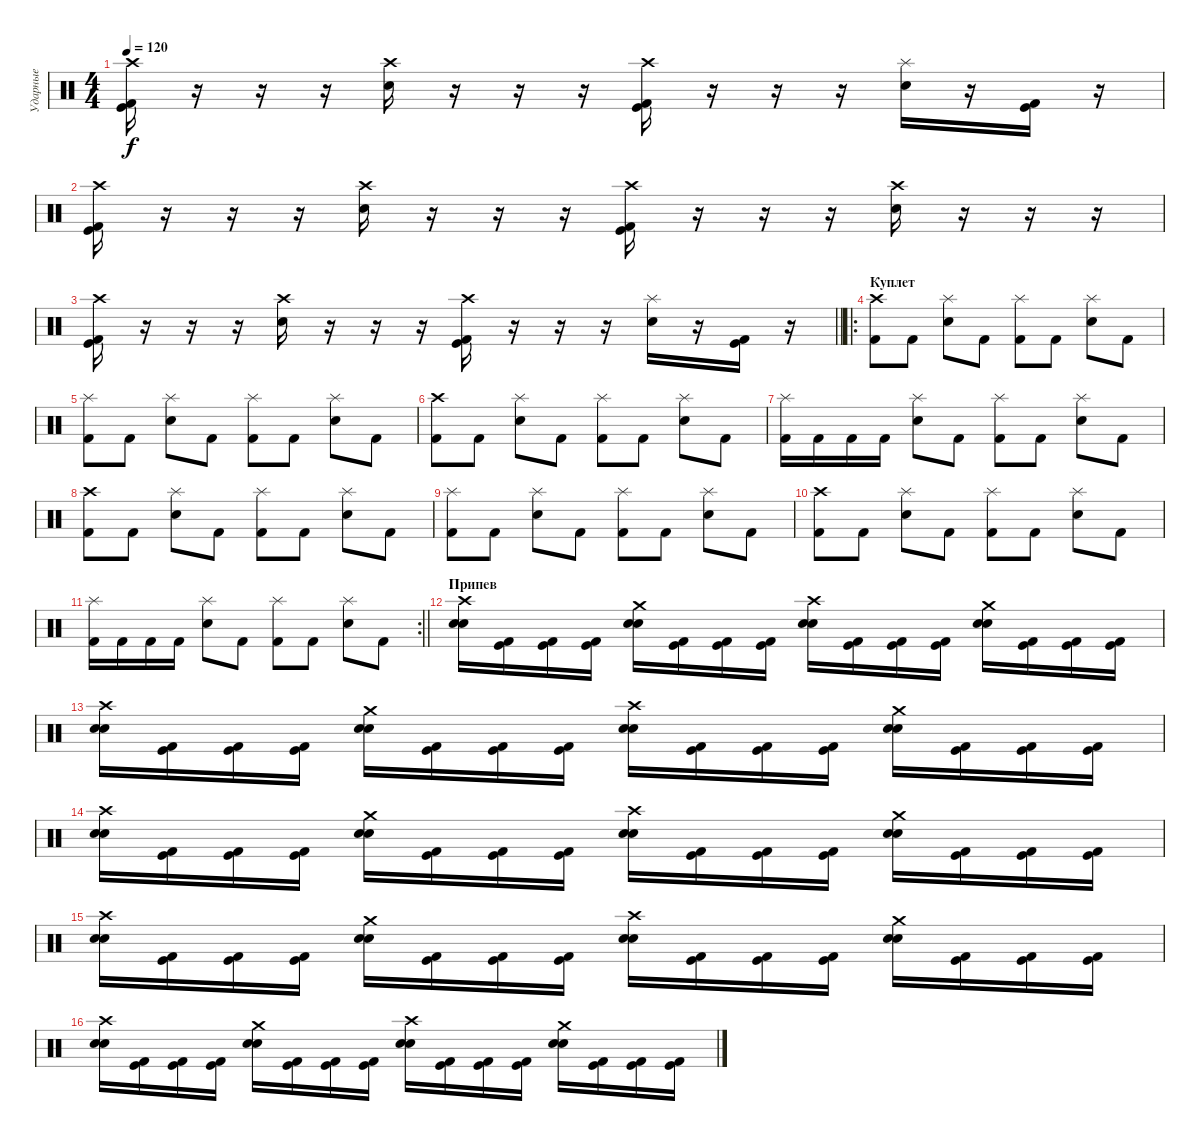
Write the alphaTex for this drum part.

\track ("Ударные" "Ударные") {instrument percussion}
\staff {score}
\articulation defaults
\ts (4 4)
\tempo 120
\clef neutral
\ks c
("Crash high (hit)" "Kick (hit) 2" "Kick (hit)").16{dy f} r.16 r.16 r.16 ("Crash high (hit)" "Electric Snare (hit)").16 r.16 r.16 r.16 ("Crash high (hit)" "Kick (hit) 2" "Kick (hit)").16 r.16 r.16 r.16 ("Splash (hit)" "Electric Snare (hit)").16 r.16 ("Kick (hit) 2" "Kick (hit)").16 r.16 |
("Crash high (hit)" "Kick (hit)" "Kick (hit) 2").16 r.16 r.16 r.16 ("Crash high (hit)" "Electric Snare (hit)").16 r.16 r.16 r.16 ("Crash high (hit)" "Kick (hit)" "Kick (hit) 2").16 r.16 r.16 r.16 ("Crash high (hit)" "Electric Snare (hit)").16 r.16 r.16 r.16 |
\barLineRight lightlight
("Crash high (hit)" "Kick (hit) 2" "Kick (hit)").16 r.16 r.16 r.16 ("Crash high (hit)" "Electric Snare (hit)").16 r.16 r.16 r.16 ("Crash high (hit)" "Kick (hit) 2" "Kick (hit)").16 r.16 r.16 r.16 ("Splash (hit)" "Electric Snare (hit)").16 r.16 ("Kick (hit) 2" "Kick (hit)").16 r.16 |
\ro
\section ("" "Куплет")
("Kick (hit) 2" "Crash high (hit)").8 "Kick (hit) 2".8 ("Electric Snare (hit)" "Splash (hit)").8 "Kick (hit) 2".8 ("Kick (hit) 2" "Splash (hit)").8 "Kick (hit) 2".8 ("Electric Snare (hit)" "Splash (hit)").8 "Kick (hit) 2".8 |
("Kick (hit) 2" "Splash (hit)").8 "Kick (hit) 2".8 ("Electric Snare (hit)" "Splash (hit)").8 "Kick (hit) 2".8 ("Kick (hit) 2" "Splash (hit)").8 "Kick (hit) 2".8 ("Electric Snare (hit)" "Splash (hit)").8 "Kick (hit) 2".8 |
("Kick (hit) 2" "Crash high (hit)").8 "Kick (hit) 2".8 ("Electric Snare (hit)" "Splash (hit)").8 "Kick (hit) 2".8 ("Kick (hit) 2" "Splash (hit)").8 "Kick (hit) 2".8 ("Electric Snare (hit)" "Splash (hit)").8 "Kick (hit) 2".8 |
("Kick (hit) 2" "Splash (hit)").16 "Kick (hit) 2".16 "Kick (hit) 2".16 "Kick (hit) 2".16 ("Electric Snare (hit)" "Splash (hit)").8 "Kick (hit) 2".8 ("Kick (hit) 2" "Splash (hit)").8 "Kick (hit) 2".8 ("Electric Snare (hit)" "Splash (hit)").8 "Kick (hit) 2".8 |
("Kick (hit) 2" "Crash high (hit)").8 "Kick (hit) 2".8 ("Electric Snare (hit)" "Splash (hit)").8 "Kick (hit) 2".8 ("Kick (hit) 2" "Splash (hit)").8 "Kick (hit) 2".8 ("Electric Snare (hit)" "Splash (hit)").8 "Kick (hit) 2".8 |
("Kick (hit) 2" "Splash (hit)").8 "Kick (hit) 2".8 ("Electric Snare (hit)" "Splash (hit)").8 "Kick (hit) 2".8 ("Kick (hit) 2" "Splash (hit)").8 "Kick (hit) 2".8 ("Electric Snare (hit)" "Splash (hit)").8 "Kick (hit) 2".8 |
("Kick (hit) 2" "Crash high (hit)").8 "Kick (hit) 2".8 ("Electric Snare (hit)" "Splash (hit)").8 "Kick (hit) 2".8 ("Kick (hit) 2" "Splash (hit)").8 "Kick (hit) 2".8 ("Electric Snare (hit)" "Splash (hit)").8 "Kick (hit) 2".8 |
\rc 2
\barLineRight lightlight
("Kick (hit) 2" "Splash (hit)").16 "Kick (hit) 2".16 "Kick (hit) 2".16 "Kick (hit) 2".16 ("Electric Snare (hit)" "Splash (hit)").8 "Kick (hit) 2".8 ("Kick (hit) 2" "Splash (hit)").8 "Kick (hit) 2".8 ("Electric Snare (hit)" "Splash (hit)").8 "Kick (hit) 2".8 |
\section ("" "Припев")
("Crash high (hit)" "Snare (hit) 2" "Electric Snare (hit)").16 ("Kick (hit)" "Kick (hit) 2").16 ("Kick (hit)" "Kick (hit) 2").16 ("Kick (hit)" "Kick (hit) 2").16 ("Crash medium (hit)" "Snare (hit) 2" "Electric Snare (hit)").16 ("Kick (hit)" "Kick (hit) 2").16 ("Kick (hit)" "Kick (hit) 2").16 ("Kick (hit)" "Kick (hit) 2").16 ("Crash high (hit)" "Snare (hit) 2" "Electric Snare (hit)").16 ("Kick (hit)" "Kick (hit) 2").16 ("Kick (hit)" "Kick (hit) 2").16 ("Kick (hit)" "Kick (hit) 2").16 ("Crash medium (hit)" "Snare (hit) 2" "Electric Snare (hit)").16 ("Kick (hit)" "Kick (hit) 2").16 ("Kick (hit)" "Kick (hit) 2").16 ("Kick (hit)" "Kick (hit) 2").16 |
("Crash high (hit)" "Snare (hit) 2" "Electric Snare (hit)").16 ("Kick (hit)" "Kick (hit) 2").16 ("Kick (hit)" "Kick (hit) 2").16 ("Kick (hit)" "Kick (hit) 2").16 ("Crash medium (hit)" "Snare (hit) 2" "Electric Snare (hit)").16 ("Kick (hit)" "Kick (hit) 2").16 ("Kick (hit)" "Kick (hit) 2").16 ("Kick (hit)" "Kick (hit) 2").16 ("Crash high (hit)" "Snare (hit) 2" "Electric Snare (hit)").16 ("Kick (hit)" "Kick (hit) 2").16 ("Kick (hit)" "Kick (hit) 2").16 ("Kick (hit)" "Kick (hit) 2").16 ("Crash medium (hit)" "Snare (hit) 2" "Electric Snare (hit)").16 ("Kick (hit)" "Kick (hit) 2").16 ("Kick (hit)" "Kick (hit) 2").16 ("Kick (hit)" "Kick (hit) 2").16 |
("Crash high (hit)" "Snare (hit) 2" "Electric Snare (hit)").16 ("Kick (hit)" "Kick (hit) 2").16 ("Kick (hit)" "Kick (hit) 2").16 ("Kick (hit)" "Kick (hit) 2").16 ("Crash medium (hit)" "Snare (hit) 2" "Electric Snare (hit)").16 ("Kick (hit)" "Kick (hit) 2").16 ("Kick (hit)" "Kick (hit) 2").16 ("Kick (hit)" "Kick (hit) 2").16 ("Crash high (hit)" "Snare (hit) 2" "Electric Snare (hit)").16 ("Kick (hit)" "Kick (hit) 2").16 ("Kick (hit)" "Kick (hit) 2").16 ("Kick (hit)" "Kick (hit) 2").16 ("Crash medium (hit)" "Snare (hit) 2" "Electric Snare (hit)").16 ("Kick (hit)" "Kick (hit) 2").16 ("Kick (hit)" "Kick (hit) 2").16 ("Kick (hit)" "Kick (hit) 2").16 |
("Crash high (hit)" "Snare (hit) 2" "Electric Snare (hit)").16 ("Kick (hit)" "Kick (hit) 2").16 ("Kick (hit)" "Kick (hit) 2").16 ("Kick (hit)" "Kick (hit) 2").16 ("Crash medium (hit)" "Snare (hit) 2" "Electric Snare (hit)").16 ("Kick (hit)" "Kick (hit) 2").16 ("Kick (hit)" "Kick (hit) 2").16 ("Kick (hit)" "Kick (hit) 2").16 ("Crash high (hit)" "Snare (hit) 2" "Electric Snare (hit)").16 ("Kick (hit)" "Kick (hit) 2").16 ("Kick (hit)" "Kick (hit) 2").16 ("Kick (hit)" "Kick (hit) 2").16 ("Crash medium (hit)" "Snare (hit) 2" "Electric Snare (hit)").16 ("Kick (hit)" "Kick (hit) 2").16 ("Kick (hit)" "Kick (hit) 2").16 ("Kick (hit)" "Kick (hit) 2").16 |
("Crash high (hit)" "Snare (hit) 2" "Electric Snare (hit)").16 ("Kick (hit)" "Kick (hit) 2").16 ("Kick (hit)" "Kick (hit) 2").16 ("Kick (hit)" "Kick (hit) 2").16 ("Crash medium (hit)" "Snare (hit) 2" "Electric Snare (hit)").16 ("Kick (hit)" "Kick (hit) 2").16 ("Kick (hit)" "Kick (hit) 2").16 ("Kick (hit)" "Kick (hit) 2").16 ("Crash high (hit)" "Snare (hit) 2" "Electric Snare (hit)").16 ("Kick (hit)" "Kick (hit) 2").16 ("Kick (hit)" "Kick (hit) 2").16 ("Kick (hit)" "Kick (hit) 2").16 ("Crash medium (hit)" "Snare (hit) 2" "Electric Snare (hit)").16 ("Kick (hit)" "Kick (hit) 2").16 ("Kick (hit)" "Kick (hit) 2").16 ("Kick (hit)" "Kick (hit) 2").16
